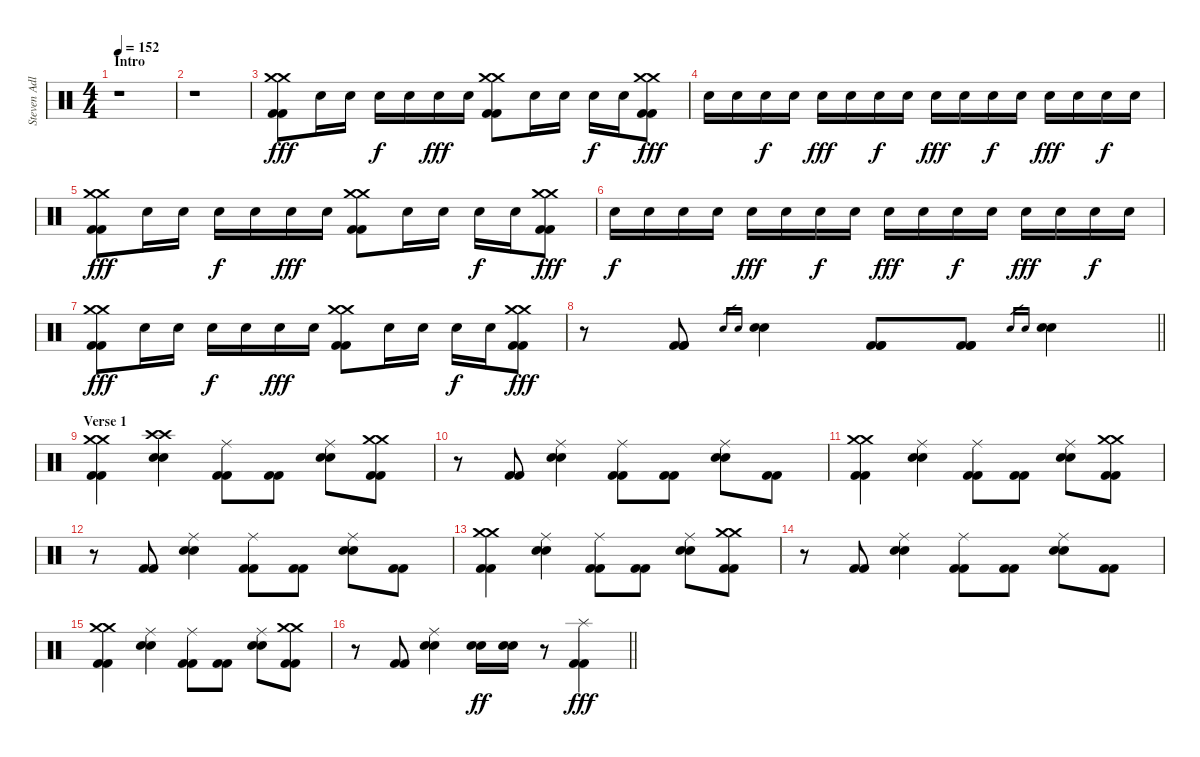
\track ("Steven Adler" "Steven Adl") {instrument percussion}
\staff {score}
\articulation defaults
\ts (4 4)
\section ("" "Intro")
\tempo 152
\clef neutral
\ks c
r.1{dy fff} |
r.1 |
("Crash medium (hit)" "Crash medium (hit)" "Kick (hit) 2" "Kick (hit) 2").8 "Electric Snare (hit)".16 "Electric Snare (hit)".16 "Electric Snare (hit)".16{dy f} "Electric Snare (hit)".16 "Electric Snare (hit)".16{dy fff} "Electric Snare (hit)".16 ("Crash medium (hit)" "Crash medium (hit)" "Kick (hit) 2" "Kick (hit) 2").8 "Electric Snare (hit)".16 "Electric Snare (hit)".16 "Electric Snare (hit)".16{dy f} "Electric Snare (hit)".16 ("Crash medium (hit)" "Crash medium (hit)" "Kick (hit) 2" "Kick (hit) 2").8{dy fff} |
"Electric Snare (hit)".16 "Electric Snare (hit)".16 "Electric Snare (hit)".16{dy f} "Electric Snare (hit)".16 "Electric Snare (hit)".16{dy fff} "Electric Snare (hit)".16 "Electric Snare (hit)".16{dy f} "Electric Snare (hit)".16 "Electric Snare (hit)".16{dy fff} "Electric Snare (hit)".16 "Electric Snare (hit)".16{dy f} "Electric Snare (hit)".16 "Electric Snare (hit)".16{dy fff} "Electric Snare (hit)".16 "Electric Snare (hit)".16{dy f} "Electric Snare (hit)".16 |
("Crash medium (hit)" "Crash medium (hit)" "Kick (hit) 2" "Kick (hit) 2").8{dy fff} "Electric Snare (hit)".16 "Electric Snare (hit)".16 "Electric Snare (hit)".16{dy f} "Electric Snare (hit)".16 "Electric Snare (hit)".16{dy fff} "Electric Snare (hit)".16 ("Crash medium (hit)" "Crash medium (hit)" "Kick (hit) 2" "Kick (hit) 2").8 "Electric Snare (hit)".16 "Electric Snare (hit)".16 "Electric Snare (hit)".16{dy f} "Electric Snare (hit)".16 ("Crash medium (hit)" "Crash medium (hit)" "Kick (hit) 2" "Kick (hit) 2").8{dy fff} |
"Electric Snare (hit)".16{dy f} "Electric Snare (hit)".16 "Electric Snare (hit)".16 "Electric Snare (hit)".16 "Electric Snare (hit)".16{dy fff} "Electric Snare (hit)".16 "Electric Snare (hit)".16{dy f} "Electric Snare (hit)".16 "Electric Snare (hit)".16{dy fff} "Electric Snare (hit)".16 "Electric Snare (hit)".16{dy f} "Electric Snare (hit)".16 "Electric Snare (hit)".16{dy fff} "Electric Snare (hit)".16 "Electric Snare (hit)".16{dy f} "Electric Snare (hit)".16 |
("Crash medium (hit)" "Crash medium (hit)" "Kick (hit) 2" "Kick (hit) 2").8{dy fff} "Electric Snare (hit)".16 "Electric Snare (hit)".16 "Electric Snare (hit)".16{dy f} "Electric Snare (hit)".16 "Electric Snare (hit)".16{dy fff} "Electric Snare (hit)".16 ("Crash medium (hit)" "Crash medium (hit)" "Kick (hit) 2" "Kick (hit) 2").8 "Electric Snare (hit)".16 "Electric Snare (hit)".16 "Electric Snare (hit)".16{dy f} "Electric Snare (hit)".16 ("Crash medium (hit)" "Crash medium (hit)" "Kick (hit) 2" "Kick (hit) 2").8{dy fff} |
\barLineRight lightlight
r.8 ("Kick (hit) 2" "Kick (hit) 2" "Kick (hit) 2").8 "Electric Snare (hit)".16{gr} "Electric Snare (hit)".16{gr} ("Electric Snare (hit)" "Electric Snare (hit)").4 ("Kick (hit) 2" "Kick (hit) 2" "Kick (hit) 2").8 ("Kick (hit) 2" "Kick (hit) 2" "Kick (hit) 2").8 "Electric Snare (hit)".16{gr} "Electric Snare (hit)".16{gr} ("Electric Snare (hit)" "Electric Snare (hit)").4 |
\section ("" "Verse 1")
("Crash medium (hit)" "Crash medium (hit)" "Kick (hit) 2" "Kick (hit) 2").4 ("Crash high (hit)" "Crash high (hit)" "Electric Snare (hit)" "Electric Snare (hit)").4 ("Ride (middle)" "Kick (hit) 2" "Kick (hit) 2").8 ("Kick (hit) 2" "Kick (hit) 2").8 ("Ride (middle)" "Electric Snare (hit)" "Electric Snare (hit)").8 ("Crash medium (hit)" "Crash medium (hit)" "Kick (hit) 2" "Kick (hit) 2").8 |
r.8 ("Kick (hit) 2" "Kick (hit) 2").8 ("Ride (middle)" "Electric Snare (hit)" "Electric Snare (hit)").4 ("Ride (middle)" "Kick (hit) 2" "Kick (hit) 2").8 ("Kick (hit) 2" "Kick (hit) 2").8 ("Ride (middle)" "Electric Snare (hit)" "Electric Snare (hit)").8 ("Kick (hit) 2" "Kick (hit) 2").8 |
("Crash medium (hit)" "Crash medium (hit)" "Kick (hit) 2" "Kick (hit) 2").4 ("Ride (middle)" "Electric Snare (hit)" "Electric Snare (hit)").4 ("Ride (middle)" "Kick (hit) 2" "Kick (hit) 2").8 ("Kick (hit) 2" "Kick (hit) 2").8 ("Ride (middle)" "Electric Snare (hit)" "Electric Snare (hit)").8 ("Crash medium (hit)" "Crash medium (hit)" "Kick (hit) 2" "Kick (hit) 2").8 |
r.8 ("Kick (hit) 2" "Kick (hit) 2").8 ("Ride (middle)" "Electric Snare (hit)" "Electric Snare (hit)").4 ("Ride (middle)" "Kick (hit) 2" "Kick (hit) 2").8 ("Kick (hit) 2" "Kick (hit) 2").8 ("Ride (middle)" "Electric Snare (hit)" "Electric Snare (hit)").8 ("Kick (hit) 2" "Kick (hit) 2").8 |
("Crash medium (hit)" "Crash medium (hit)" "Kick (hit) 2" "Kick (hit) 2").4 ("Ride (middle)" "Electric Snare (hit)" "Electric Snare (hit)").4 ("Ride (middle)" "Kick (hit) 2" "Kick (hit) 2").8 ("Kick (hit) 2" "Kick (hit) 2").8 ("Ride (middle)" "Electric Snare (hit)" "Electric Snare (hit)").8 ("Crash medium (hit)" "Crash medium (hit)" "Kick (hit) 2" "Kick (hit) 2").8 |
r.8 ("Kick (hit) 2" "Kick (hit) 2").8 ("Ride (middle)" "Electric Snare (hit)" "Electric Snare (hit)").4 ("Ride (middle)" "Kick (hit) 2" "Kick (hit) 2").8 ("Kick (hit) 2" "Kick (hit) 2").8 ("Ride (middle)" "Electric Snare (hit)" "Electric Snare (hit)").8 ("Kick (hit) 2" "Kick (hit) 2").8 |
("Crash medium (hit)" "Crash medium (hit)" "Kick (hit) 2" "Kick (hit) 2").4 ("Ride (middle)" "Electric Snare (hit)" "Electric Snare (hit)").4 ("Ride (middle)" "Kick (hit) 2" "Kick (hit) 2").8 ("Kick (hit) 2" "Kick (hit) 2").8 ("Ride (middle)" "Electric Snare (hit)" "Electric Snare (hit)").8 ("Crash medium (hit)" "Crash medium (hit)" "Kick (hit) 2" "Kick (hit) 2").8 |
\barLineRight lightlight
r.8 ("Kick (hit) 2" "Kick (hit) 2").8 ("Ride (middle)" "Electric Snare (hit)" "Electric Snare (hit)").4 ("Electric Snare (hit)" "Electric Snare (hit)").16{dy ff} ("Electric Snare (hit)" "Electric Snare (hit)").16 r.8 ("Splash (hit)" "Kick (hit) 2" "Kick (hit) 2").4{dy fff}
